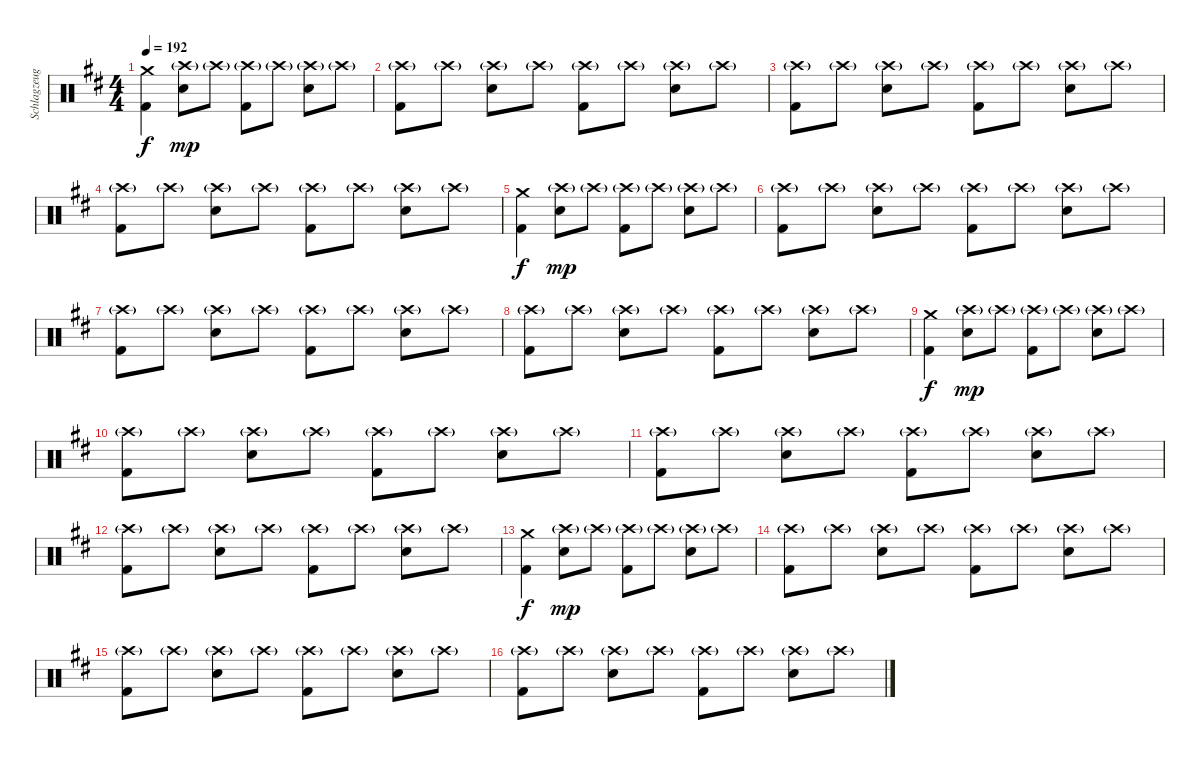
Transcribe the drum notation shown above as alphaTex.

\track ("Schlagzeug - Vom" "Schlagzeug") {instrument percussion}
\staff {score}
\articulation defaults
\ts (4 4)
\tempo 192
\clef neutral
\ks d
("Crash medium (hit)" "Kick (hit) 2").4{dy f} ("Crash high (hit)"{g} "Snare (hit) 2").8{dy mp} "Crash high (hit)"{g}.8 ("Crash high (hit)"{g} "Kick (hit) 2").8 "Crash high (hit)"{g}.8 ("Crash high (hit)"{g} "Snare (hit) 2").8 "Crash high (hit)"{g}.8 |
("Crash high (hit)"{g} "Kick (hit) 2").8 "Crash high (hit)"{g}.8 ("Crash high (hit)"{g} "Snare (hit) 2").8 "Crash high (hit)"{g}.8 ("Crash high (hit)"{g} "Kick (hit) 2").8 "Crash high (hit)"{g}.8 ("Crash high (hit)"{g} "Snare (hit) 2").8 "Crash high (hit)"{g}.8 |
("Crash high (hit)"{g} "Kick (hit) 2").8 "Crash high (hit)"{g}.8 ("Crash high (hit)"{g} "Snare (hit) 2").8 "Crash high (hit)"{g}.8 ("Crash high (hit)"{g} "Kick (hit) 2").8 "Crash high (hit)"{g}.8 ("Crash high (hit)"{g} "Snare (hit) 2").8 "Crash high (hit)"{g}.8 |
("Crash high (hit)"{g} "Kick (hit) 2").8 "Crash high (hit)"{g}.8 ("Crash high (hit)"{g} "Snare (hit) 2").8 "Crash high (hit)"{g}.8 ("Crash high (hit)"{g} "Kick (hit) 2").8 "Crash high (hit)"{g}.8 ("Crash high (hit)"{g} "Snare (hit) 2").8 "Crash high (hit)"{g}.8 |
("Crash medium (hit)" "Kick (hit) 2").4{dy f} ("Crash high (hit)"{g} "Snare (hit) 2").8{dy mp} "Crash high (hit)"{g}.8 ("Crash high (hit)"{g} "Kick (hit) 2").8 "Crash high (hit)"{g}.8 ("Crash high (hit)"{g} "Snare (hit) 2").8 "Crash high (hit)"{g}.8 |
("Crash high (hit)"{g} "Kick (hit) 2").8 "Crash high (hit)"{g}.8 ("Crash high (hit)"{g} "Snare (hit) 2").8 "Crash high (hit)"{g}.8 ("Crash high (hit)"{g} "Kick (hit) 2").8 "Crash high (hit)"{g}.8 ("Crash high (hit)"{g} "Snare (hit) 2").8 "Crash high (hit)"{g}.8 |
("Crash high (hit)"{g} "Kick (hit) 2").8 "Crash high (hit)"{g}.8 ("Crash high (hit)"{g} "Snare (hit) 2").8 "Crash high (hit)"{g}.8 ("Crash high (hit)"{g} "Kick (hit) 2").8 "Crash high (hit)"{g}.8 ("Crash high (hit)"{g} "Snare (hit) 2").8 "Crash high (hit)"{g}.8 |
("Crash high (hit)"{g} "Kick (hit) 2").8 "Crash high (hit)"{g}.8 ("Crash high (hit)"{g} "Snare (hit) 2").8 "Crash high (hit)"{g}.8 ("Crash high (hit)"{g} "Kick (hit) 2").8 "Crash high (hit)"{g}.8 ("Crash high (hit)"{g} "Snare (hit) 2").8 "Crash high (hit)"{g}.8 |
("Crash medium (hit)" "Kick (hit) 2").4{dy f} ("Crash high (hit)"{g} "Snare (hit) 2").8{dy mp} "Crash high (hit)"{g}.8 ("Crash high (hit)"{g} "Kick (hit) 2").8 "Crash high (hit)"{g}.8 ("Crash high (hit)"{g} "Snare (hit) 2").8 "Crash high (hit)"{g}.8 |
("Crash high (hit)"{g} "Kick (hit) 2").8 "Crash high (hit)"{g}.8 ("Crash high (hit)"{g} "Snare (hit) 2").8 "Crash high (hit)"{g}.8 ("Crash high (hit)"{g} "Kick (hit) 2").8 "Crash high (hit)"{g}.8 ("Crash high (hit)"{g} "Snare (hit) 2").8 "Crash high (hit)"{g}.8 |
("Crash high (hit)"{g} "Kick (hit) 2").8 "Crash high (hit)"{g}.8 ("Crash high (hit)"{g} "Snare (hit) 2").8 "Crash high (hit)"{g}.8 ("Crash high (hit)"{g} "Kick (hit) 2").8 "Crash high (hit)"{g}.8 ("Crash high (hit)"{g} "Snare (hit) 2").8 "Crash high (hit)"{g}.8 |
("Crash high (hit)"{g} "Kick (hit) 2").8 "Crash high (hit)"{g}.8 ("Crash high (hit)"{g} "Snare (hit) 2").8 "Crash high (hit)"{g}.8 ("Crash high (hit)"{g} "Kick (hit) 2").8 "Crash high (hit)"{g}.8 ("Crash high (hit)"{g} "Snare (hit) 2").8 "Crash high (hit)"{g}.8 |
("Crash medium (hit)" "Kick (hit) 2").4{dy f} ("Crash high (hit)"{g} "Snare (hit) 2").8{dy mp} "Crash high (hit)"{g}.8 ("Crash high (hit)"{g} "Kick (hit) 2").8 "Crash high (hit)"{g}.8 ("Crash high (hit)"{g} "Snare (hit) 2").8 "Crash high (hit)"{g}.8 |
("Crash high (hit)"{g} "Kick (hit) 2").8 "Crash high (hit)"{g}.8 ("Crash high (hit)"{g} "Snare (hit) 2").8 "Crash high (hit)"{g}.8 ("Crash high (hit)"{g} "Kick (hit) 2").8 "Crash high (hit)"{g}.8 ("Crash high (hit)"{g} "Snare (hit) 2").8 "Crash high (hit)"{g}.8 |
("Crash high (hit)"{g} "Kick (hit) 2").8 "Crash high (hit)"{g}.8 ("Crash high (hit)"{g} "Snare (hit) 2").8 "Crash high (hit)"{g}.8 ("Crash high (hit)"{g} "Kick (hit) 2").8 "Crash high (hit)"{g}.8 ("Crash high (hit)"{g} "Snare (hit) 2").8 "Crash high (hit)"{g}.8 |
("Crash high (hit)"{g} "Kick (hit) 2").8 "Crash high (hit)"{g}.8 ("Crash high (hit)"{g} "Snare (hit) 2").8 "Crash high (hit)"{g}.8 ("Crash high (hit)"{g} "Kick (hit) 2").8 "Crash high (hit)"{g}.8 ("Crash high (hit)"{g} "Snare (hit) 2").8 "Crash high (hit)"{g}.8
